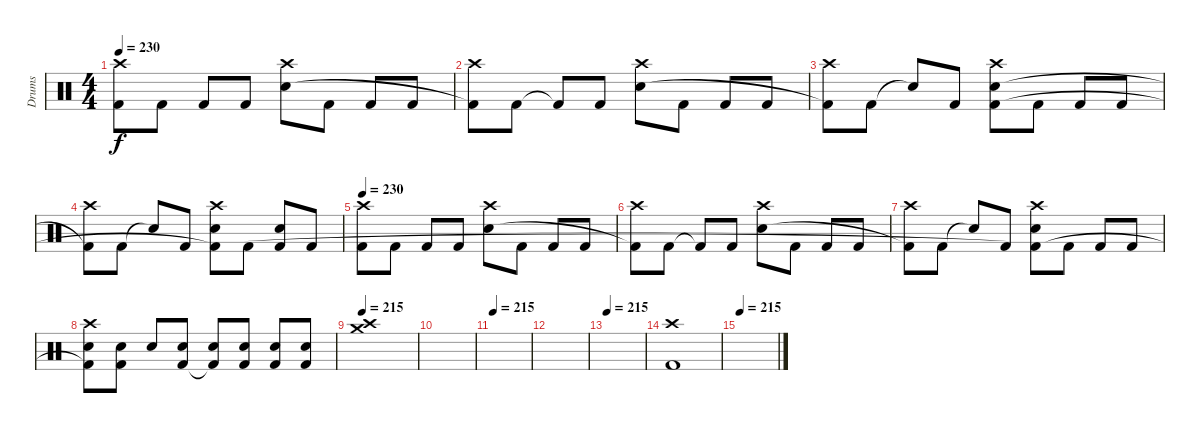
\track ("Drums" "Drums") {instrument percussion}
\staff {score}
\articulation defaults
\ts (4 4)
\tempo 230
\clef neutral
\ks c
("Crash high (hit)" "Kick (hit) 2").8{dy f} "Kick (hit) 2".8 "Kick (hit) 2".8 "Kick (hit) 2".8 ("Crash high (hit)" "Electric Snare (hit)").8 "Kick (hit) 2".8 "Kick (hit) 2".8 "Kick (hit) 2".8 |
("Crash high (hit)" "Kick (hit) 2"{t}).8 "Kick (hit) 2".8 "Kick (hit) 2"{t}.8 "Kick (hit) 2".8 ("Crash high (hit)" "Electric Snare (hit)").8 "Kick (hit) 2".8 "Kick (hit) 2".8 "Kick (hit) 2".8 |
("Crash high (hit)" "Kick (hit) 2"{t}).8 "Kick (hit) 2".8 "Snare (hit)"{t}.8 "Kick (hit) 2".8 ("Crash high (hit)" "Electric Snare (hit)" "Kick (hit) 2"{t}).8 "Kick (hit) 2".8 "Kick (hit) 2".8 "Kick (hit) 2".8 |
("Crash high (hit)" "Kick (hit) 2"{t}).8 "Kick (hit) 2".8 "Snare (hit)"{t}.8 "Kick (hit) 2".8 ("Crash high (hit)" "Electric Snare (hit)" "Kick (hit) 2"{t}).8 "Kick (hit) 2".8 ("Electric Snare (hit)" "Kick (hit) 2").8 "Kick (hit) 2".8 |
\tempo 230
("Crash high (hit)" "Kick (hit) 2").8 "Kick (hit) 2".8 "Kick (hit) 2".8 "Kick (hit) 2".8 ("Crash high (hit)" "Electric Snare (hit)").8 "Kick (hit) 2".8 "Kick (hit) 2".8 "Kick (hit) 2".8 |
("Crash high (hit)" "Kick (hit) 2"{t}).8 "Kick (hit) 2".8 "Kick (hit) 2"{t}.8 "Kick (hit) 2".8 ("Crash high (hit)" "Electric Snare (hit)").8 "Kick (hit) 2".8 "Kick (hit) 2".8 "Kick (hit) 2".8 |
("Crash high (hit)" "Kick (hit) 2"{t}).8 "Kick (hit) 2".8 "Snare (hit)"{t}.8 "Kick (hit) 2".8 ("Crash high (hit)" "Electric Snare (hit)" "Kick (hit) 2"{t}).8 "Kick (hit) 2".8 "Kick (hit) 2".8 "Kick (hit) 2".8 |
("Crash high (hit)" "Electric Snare (hit)" "Kick (hit) 2"{t}).8 ("Electric Snare (hit)" "Kick (hit) 2").8 "Electric Snare (hit)".8 ("Electric Snare (hit)" "Kick (hit) 2").8 ("Electric Snare (hit)" "Kick (hit) 2"{t}).8 ("Electric Snare (hit)" "Kick (hit) 2").8 ("Electric Snare (hit)" "Kick (hit) 2").8 ("Electric Snare (hit)" "Kick (hit) 2").8 |
\tempo 215
("Crash high (hit)" "Crash medium (hit)").1 |
|
\tempo 215
|
|
\tempo 215
|
("Crash high (hit)" "Kick (hit) 2").1 |
\tempo 215
